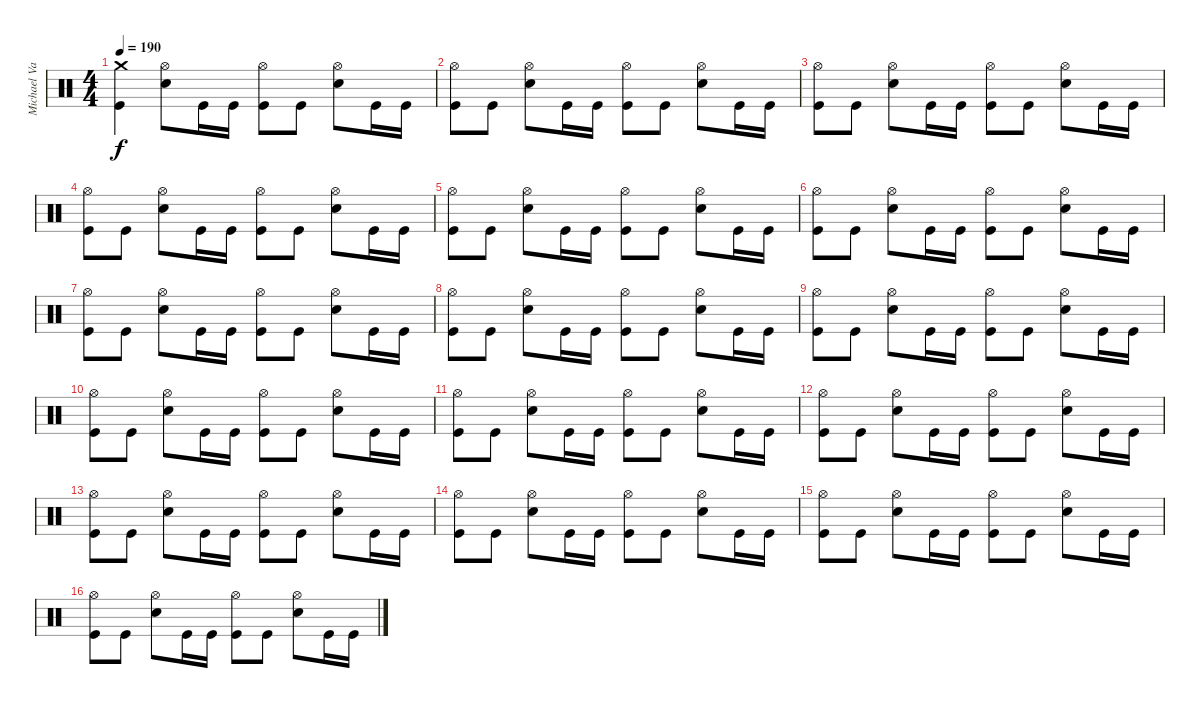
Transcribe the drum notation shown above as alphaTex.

\track ("Michael VanDyne" "Michael Va") {instrument percussion}
\staff {score}
\articulation defaults
\ts (4 4)
\tempo 190
\clef neutral
\ks c
("Crash medium (hit)" "Kick (hit)").4{dy f} ("Hi-Hat (open)" "Electric Snare (hit)").8 "Kick (hit)".16 "Kick (hit)".16 ("Hi-Hat (open)" "Kick (hit)").8 "Kick (hit)".8 ("Hi-Hat (open)" "Electric Snare (hit)").8 "Kick (hit)".16 "Kick (hit)".16 |
("Hi-Hat (open)" "Kick (hit)").8 "Kick (hit)".8 ("Hi-Hat (open)" "Electric Snare (hit)").8 "Kick (hit)".16 "Kick (hit)".16 ("Hi-Hat (open)" "Kick (hit)").8 "Kick (hit)".8 ("Hi-Hat (open)" "Electric Snare (hit)").8 "Kick (hit)".16 "Kick (hit)".16 |
("Hi-Hat (open)" "Kick (hit)").8 "Kick (hit)".8 ("Hi-Hat (open)" "Electric Snare (hit)").8 "Kick (hit)".16 "Kick (hit)".16 ("Hi-Hat (open)" "Kick (hit)").8 "Kick (hit)".8 ("Hi-Hat (open)" "Electric Snare (hit)").8 "Kick (hit)".16 "Kick (hit)".16 |
("Hi-Hat (open)" "Kick (hit)").8 "Kick (hit)".8 ("Hi-Hat (open)" "Electric Snare (hit)").8 "Kick (hit)".16 "Kick (hit)".16 ("Hi-Hat (open)" "Kick (hit)").8 "Kick (hit)".8 ("Hi-Hat (open)" "Electric Snare (hit)").8 "Kick (hit)".16 "Kick (hit)".16 |
("Hi-Hat (open)" "Kick (hit)").8 "Kick (hit)".8 ("Hi-Hat (open)" "Electric Snare (hit)").8 "Kick (hit)".16 "Kick (hit)".16 ("Hi-Hat (open)" "Kick (hit)").8 "Kick (hit)".8 ("Hi-Hat (open)" "Electric Snare (hit)").8 "Kick (hit)".16 "Kick (hit)".16 |
("Hi-Hat (open)" "Kick (hit)").8 "Kick (hit)".8 ("Hi-Hat (open)" "Electric Snare (hit)").8 "Kick (hit)".16 "Kick (hit)".16 ("Hi-Hat (open)" "Kick (hit)").8 "Kick (hit)".8 ("Hi-Hat (open)" "Electric Snare (hit)").8 "Kick (hit)".16 "Kick (hit)".16 |
("Hi-Hat (open)" "Kick (hit)").8 "Kick (hit)".8 ("Hi-Hat (open)" "Electric Snare (hit)").8 "Kick (hit)".16 "Kick (hit)".16 ("Hi-Hat (open)" "Kick (hit)").8 "Kick (hit)".8 ("Hi-Hat (open)" "Electric Snare (hit)").8 "Kick (hit)".16 "Kick (hit)".16 |
("Hi-Hat (open)" "Kick (hit)").8 "Kick (hit)".8 ("Hi-Hat (open)" "Electric Snare (hit)").8 "Kick (hit)".16 "Kick (hit)".16 ("Hi-Hat (open)" "Kick (hit)").8 "Kick (hit)".8 ("Hi-Hat (open)" "Electric Snare (hit)").8 "Kick (hit)".16 "Kick (hit)".16 |
("Hi-Hat (open)" "Kick (hit)").8 "Kick (hit)".8 ("Hi-Hat (open)" "Electric Snare (hit)").8 "Kick (hit)".16 "Kick (hit)".16 ("Hi-Hat (open)" "Kick (hit)").8 "Kick (hit)".8 ("Hi-Hat (open)" "Electric Snare (hit)").8 "Kick (hit)".16 "Kick (hit)".16 |
("Hi-Hat (open)" "Kick (hit)").8 "Kick (hit)".8 ("Hi-Hat (open)" "Electric Snare (hit)").8 "Kick (hit)".16 "Kick (hit)".16 ("Hi-Hat (open)" "Kick (hit)").8 "Kick (hit)".8 ("Hi-Hat (open)" "Electric Snare (hit)").8 "Kick (hit)".16 "Kick (hit)".16 |
("Hi-Hat (open)" "Kick (hit)").8 "Kick (hit)".8 ("Hi-Hat (open)" "Electric Snare (hit)").8 "Kick (hit)".16 "Kick (hit)".16 ("Hi-Hat (open)" "Kick (hit)").8 "Kick (hit)".8 ("Hi-Hat (open)" "Electric Snare (hit)").8 "Kick (hit)".16 "Kick (hit)".16 |
("Hi-Hat (open)" "Kick (hit)").8 "Kick (hit)".8 ("Hi-Hat (open)" "Electric Snare (hit)").8 "Kick (hit)".16 "Kick (hit)".16 ("Hi-Hat (open)" "Kick (hit)").8 "Kick (hit)".8 ("Hi-Hat (open)" "Electric Snare (hit)").8 "Kick (hit)".16 "Kick (hit)".16 |
("Hi-Hat (open)" "Kick (hit)").8 "Kick (hit)".8 ("Hi-Hat (open)" "Electric Snare (hit)").8 "Kick (hit)".16 "Kick (hit)".16 ("Hi-Hat (open)" "Kick (hit)").8 "Kick (hit)".8 ("Hi-Hat (open)" "Electric Snare (hit)").8 "Kick (hit)".16 "Kick (hit)".16 |
("Hi-Hat (open)" "Kick (hit)").8 "Kick (hit)".8 ("Hi-Hat (open)" "Electric Snare (hit)").8 "Kick (hit)".16 "Kick (hit)".16 ("Hi-Hat (open)" "Kick (hit)").8 "Kick (hit)".8 ("Hi-Hat (open)" "Electric Snare (hit)").8 "Kick (hit)".16 "Kick (hit)".16 |
("Hi-Hat (open)" "Kick (hit)").8 "Kick (hit)".8 ("Hi-Hat (open)" "Electric Snare (hit)").8 "Kick (hit)".16 "Kick (hit)".16 ("Hi-Hat (open)" "Kick (hit)").8 "Kick (hit)".8 ("Hi-Hat (open)" "Electric Snare (hit)").8 "Kick (hit)".16 "Kick (hit)".16 |
("Hi-Hat (open)" "Kick (hit)").8 "Kick (hit)".8 ("Hi-Hat (open)" "Electric Snare (hit)").8 "Kick (hit)".16 "Kick (hit)".16 ("Hi-Hat (open)" "Kick (hit)").8 "Kick (hit)".8 ("Hi-Hat (open)" "Electric Snare (hit)").8 "Kick (hit)".16 "Kick (hit)".16
